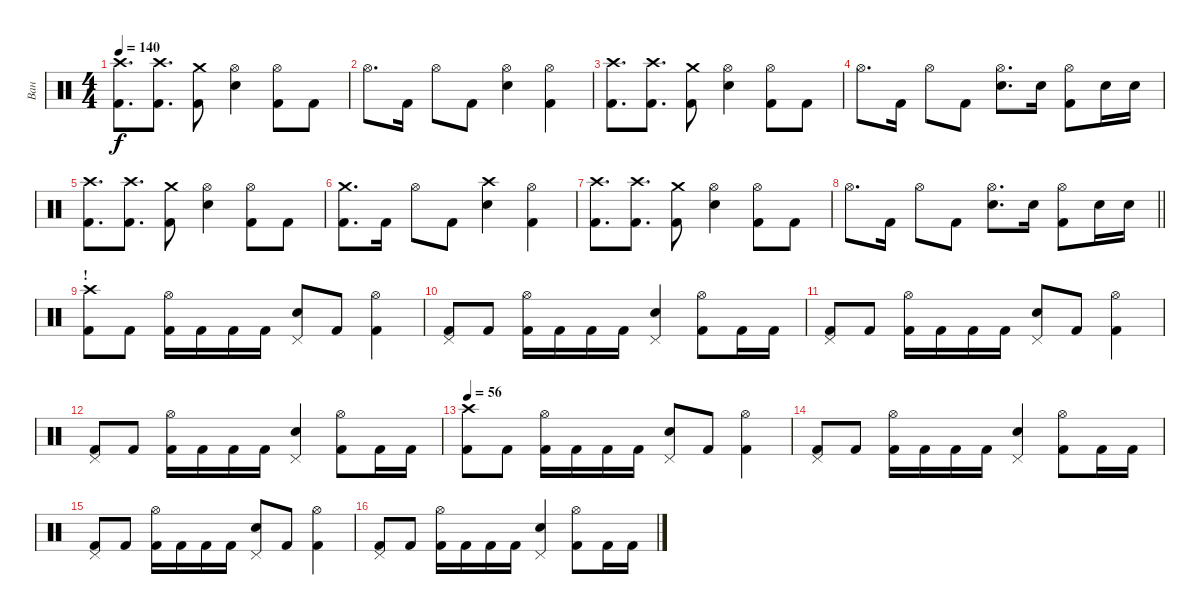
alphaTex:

\track ("Ван" "Ван") {instrument percussion}
\staff {score}
\articulation defaults
\ts (4 4)
\tempo 140
\clef neutral
\ks c
("Crash high (hit)" "Kick (hit) 2").8{d dy f} ("Crash high (hit)" "Kick (hit) 2").8{d} ("Crash medium (hit)" "Kick (hit) 2").8 ("Hi-Hat (open)" "Snare (hit) 2").4 ("Hi-Hat (open)" "Kick (hit) 2").8 "Kick (hit) 2".8 |
"Hi-Hat (open)".8{d} "Kick (hit) 2".16 "Hi-Hat (open)".8 "Kick (hit) 2".8 ("Hi-Hat (open)" "Snare (hit) 2").4 ("Hi-Hat (open)" "Kick (hit) 2").4 |
("Crash high (hit)" "Kick (hit) 2").8{d} ("Crash high (hit)" "Kick (hit) 2").8{d} ("Crash medium (hit)" "Kick (hit) 2").8 ("Hi-Hat (open)" "Snare (hit) 2").4 ("Hi-Hat (open)" "Kick (hit) 2").8 "Kick (hit) 2".8 |
"Hi-Hat (open)".8{d} "Kick (hit) 2".16 "Hi-Hat (open)".8 "Kick (hit) 2".8 ("Hi-Hat (open)" "Snare (hit) 2").8{d} "Snare (hit) 2".16 ("Hi-Hat (open)" "Kick (hit) 2").8 "Snare (hit) 2".16 "Snare (hit) 2".16 |
("Crash high (hit)" "Kick (hit) 2").8{d} ("Crash high (hit)" "Kick (hit) 2").8{d} ("Crash medium (hit)" "Kick (hit) 2").8 ("Hi-Hat (open)" "Snare (hit) 2").4 ("Hi-Hat (open)" "Kick (hit) 2").8 "Kick (hit) 2".8 |
("Crash medium (hit)" "Kick (hit) 2").8{d} "Kick (hit) 2".16 "Hi-Hat (open)".8 "Kick (hit) 2".8 ("Crash high (hit)" "Snare (hit) 2").4 ("Hi-Hat (open)" "Kick (hit) 2").4 |
("Crash high (hit)" "Kick (hit) 2").8{d} ("Crash high (hit)" "Kick (hit) 2").8{d} ("Crash medium (hit)" "Kick (hit) 2").8 ("Hi-Hat (open)" "Snare (hit) 2").4 ("Hi-Hat (open)" "Kick (hit) 2").8 "Kick (hit) 2".8 |
\barLineRight lightlight "Hi-Hat (open)".8{d} "Kick (hit) 2".16 "Hi-Hat (open)".8 "Kick (hit) 2".8
("Hi-Hat (open)" "Snare (hit) 2").8{d} "Snare (hit) 2".16 ("Hi-Hat (open)" "Kick (hit) 2").8 "Snare (hit) 2".16 "Snare (hit) 2".16 |
\section ("" "!")
("Crash high (hit)" "Kick (hit) 2").8 "Kick (hit) 2".8 ("Hi-Hat (open)" "Kick (hit) 2").16 "Kick (hit) 2".16 "Kick (hit) 2".16 "Kick (hit) 2".16 ("Pedal Hi-Hat (hit)" "Snare (hit) 2").8 "Kick (hit) 2".8 ("Hi-Hat (open)" "Kick (hit) 2").4 |
("Pedal Hi-Hat (hit)" "Kick (hit) 2").8 "Kick (hit) 2".8 ("Hi-Hat (open)" "Kick (hit) 2").16 "Kick (hit) 2".16 "Kick (hit) 2".16 "Kick (hit) 2".16 ("Pedal Hi-Hat (hit)" "Snare (hit) 2").4 ("Hi-Hat (open)" "Kick (hit) 2").8 "Kick (hit) 2".16 "Kick (hit) 2".16 |
("Pedal Hi-Hat (hit)" "Kick (hit) 2").8 "Kick (hit) 2".8 ("Hi-Hat (open)" "Kick (hit) 2").16 "Kick (hit) 2".16 "Kick (hit) 2".16 "Kick (hit) 2".16 ("Pedal Hi-Hat (hit)" "Snare (hit) 2").8 "Kick (hit) 2".8 ("Hi-Hat (open)" "Kick (hit) 2").4 |
("Pedal Hi-Hat (hit)" "Kick (hit) 2").8 "Kick (hit) 2".8 ("Hi-Hat (open)" "Kick (hit) 2").16 "Kick (hit) 2".16 "Kick (hit) 2".16 "Kick (hit) 2".16 ("Pedal Hi-Hat (hit)" "Snare (hit) 2").4 ("Hi-Hat (open)" "Kick (hit) 2").8 "Kick (hit) 2".16 "Kick (hit) 2".16 |
\tempo 56
("Crash high (hit)" "Kick (hit) 2").8 "Kick (hit) 2".8 ("Hi-Hat (open)" "Kick (hit) 2").16 "Kick (hit) 2".16 "Kick (hit) 2".16 "Kick (hit) 2".16 ("Pedal Hi-Hat (hit)" "Snare (hit) 2").8 "Kick (hit) 2".8 ("Hi-Hat (open)" "Kick (hit) 2").4 |
("Pedal Hi-Hat (hit)" "Kick (hit) 2").8 "Kick (hit) 2".8 ("Hi-Hat (open)" "Kick (hit) 2").16 "Kick (hit) 2".16 "Kick (hit) 2".16 "Kick (hit) 2".16 ("Pedal Hi-Hat (hit)" "Snare (hit) 2").4 ("Hi-Hat (open)" "Kick (hit) 2").8 "Kick (hit) 2".16 "Kick (hit) 2".16 |
("Pedal Hi-Hat (hit)" "Kick (hit) 2").8 "Kick (hit) 2".8 ("Hi-Hat (open)" "Kick (hit) 2").16 "Kick (hit) 2".16 "Kick (hit) 2".16 "Kick (hit) 2".16 ("Pedal Hi-Hat (hit)" "Snare (hit) 2").8 "Kick (hit) 2".8 ("Hi-Hat (open)" "Kick (hit) 2").4 |
("Pedal Hi-Hat (hit)" "Kick (hit) 2").8 "Kick (hit) 2".8 ("Hi-Hat (open)" "Kick (hit) 2").16 "Kick (hit) 2".16 "Kick (hit) 2".16 "Kick (hit) 2".16 ("Pedal Hi-Hat (hit)" "Snare (hit) 2").4 ("Hi-Hat (open)" "Kick (hit) 2").8 "Kick (hit) 2".16 "Kick (hit) 2".16
